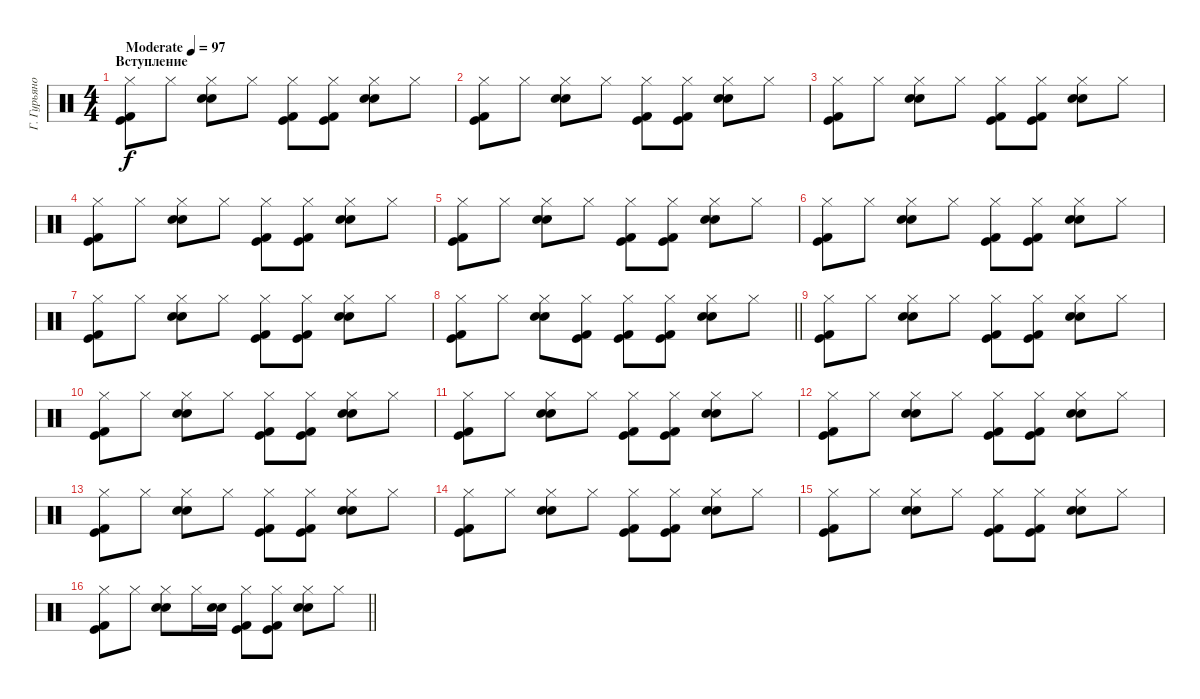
\track ("Г. Гурьянов" "Г. Гурьяно") {instrument percussion}
\staff {score}
\articulation defaults
\ts (4 4)
\section ("" "Вступление")
\tempo (97 "Moderate")
\clef neutral
\ks c
("Kick (hit) 2" "Kick (hit)" "Hi-Hat (closed)").8{dy f} "Hi-Hat (closed)".8 ("Electric Snare (hit)" "Snare (hit) 2" "Hi-Hat (closed)").8 "Hi-Hat (closed)".8 ("Kick (hit) 2" "Kick (hit)" "Hi-Hat (closed)").8 ("Kick (hit) 2" "Kick (hit)" "Hi-Hat (closed)").8 ("Electric Snare (hit)" "Snare (hit) 2" "Hi-Hat (closed)").8 "Hi-Hat (closed)".8 |
("Kick (hit) 2" "Kick (hit)" "Hi-Hat (closed)").8 "Hi-Hat (closed)".8 ("Electric Snare (hit)" "Snare (hit) 2" "Hi-Hat (closed)").8 "Hi-Hat (closed)".8 ("Kick (hit) 2" "Kick (hit)" "Hi-Hat (closed)").8 ("Kick (hit) 2" "Kick (hit)" "Hi-Hat (closed)").8 ("Electric Snare (hit)" "Snare (hit) 2" "Hi-Hat (closed)").8 "Hi-Hat (closed)".8 |
("Kick (hit) 2" "Kick (hit)" "Hi-Hat (closed)").8 "Hi-Hat (closed)".8 ("Electric Snare (hit)" "Snare (hit) 2" "Hi-Hat (closed)").8 "Hi-Hat (closed)".8 ("Kick (hit) 2" "Kick (hit)" "Hi-Hat (closed)").8 ("Kick (hit) 2" "Kick (hit)" "Hi-Hat (closed)").8 ("Electric Snare (hit)" "Snare (hit) 2" "Hi-Hat (closed)").8 "Hi-Hat (closed)".8 |
("Kick (hit) 2" "Kick (hit)" "Hi-Hat (closed)").8 "Hi-Hat (closed)".8 ("Electric Snare (hit)" "Snare (hit) 2" "Hi-Hat (closed)").8 "Hi-Hat (closed)".8 ("Kick (hit) 2" "Kick (hit)" "Hi-Hat (closed)").8 ("Kick (hit) 2" "Kick (hit)" "Hi-Hat (closed)").8 ("Electric Snare (hit)" "Snare (hit) 2" "Hi-Hat (closed)").8 "Hi-Hat (closed)".8 |
("Kick (hit) 2" "Kick (hit)" "Hi-Hat (closed)").8 "Hi-Hat (closed)".8 ("Electric Snare (hit)" "Snare (hit) 2" "Hi-Hat (closed)").8 "Hi-Hat (closed)".8 ("Kick (hit) 2" "Kick (hit)" "Hi-Hat (closed)").8 ("Kick (hit) 2" "Kick (hit)" "Hi-Hat (closed)").8 ("Electric Snare (hit)" "Snare (hit) 2" "Hi-Hat (closed)").8 "Hi-Hat (closed)".8 |
("Kick (hit) 2" "Kick (hit)" "Hi-Hat (closed)").8 "Hi-Hat (closed)".8 ("Electric Snare (hit)" "Snare (hit) 2" "Hi-Hat (closed)").8 "Hi-Hat (closed)".8 ("Kick (hit) 2" "Kick (hit)" "Hi-Hat (closed)").8 ("Kick (hit) 2" "Kick (hit)" "Hi-Hat (closed)").8 ("Electric Snare (hit)" "Snare (hit) 2" "Hi-Hat (closed)").8 "Hi-Hat (closed)".8 |
("Kick (hit) 2" "Kick (hit)" "Hi-Hat (closed)").8 "Hi-Hat (closed)".8 ("Electric Snare (hit)" "Snare (hit) 2" "Hi-Hat (closed)").8 "Hi-Hat (closed)".8 ("Kick (hit) 2" "Kick (hit)" "Hi-Hat (closed)").8 ("Kick (hit) 2" "Kick (hit)" "Hi-Hat (closed)").8 ("Electric Snare (hit)" "Snare (hit) 2" "Hi-Hat (closed)").8 "Hi-Hat (closed)".8 |
\barLineRight lightlight
("Kick (hit) 2" "Kick (hit)" "Hi-Hat (closed)").8 "Hi-Hat (closed)".8 ("Electric Snare (hit)" "Snare (hit) 2" "Hi-Hat (closed)").8 ("Kick (hit) 2" "Kick (hit)" "Hi-Hat (closed)").8 ("Kick (hit) 2" "Kick (hit)" "Hi-Hat (closed)").8 ("Kick (hit) 2" "Kick (hit)" "Hi-Hat (closed)").8 ("Electric Snare (hit)" "Snare (hit) 2" "Hi-Hat (closed)").8 "Hi-Hat (closed)".8 |
("Kick (hit) 2" "Kick (hit)" "Hi-Hat (closed)").8 "Hi-Hat (closed)".8 ("Electric Snare (hit)" "Snare (hit) 2" "Hi-Hat (closed)").8 "Hi-Hat (closed)".8 ("Kick (hit) 2" "Kick (hit)" "Hi-Hat (closed)").8 ("Kick (hit) 2" "Kick (hit)" "Hi-Hat (closed)").8 ("Electric Snare (hit)" "Snare (hit) 2" "Hi-Hat (closed)").8 "Hi-Hat (closed)".8 |
("Kick (hit) 2" "Kick (hit)" "Hi-Hat (closed)").8 "Hi-Hat (closed)".8 ("Electric Snare (hit)" "Snare (hit) 2" "Hi-Hat (closed)").8 "Hi-Hat (closed)".8 ("Kick (hit) 2" "Kick (hit)" "Hi-Hat (closed)").8 ("Kick (hit) 2" "Kick (hit)" "Hi-Hat (closed)").8 ("Electric Snare (hit)" "Snare (hit) 2" "Hi-Hat (closed)").8 "Hi-Hat (closed)".8 |
("Kick (hit) 2" "Kick (hit)" "Hi-Hat (closed)").8 "Hi-Hat (closed)".8 ("Electric Snare (hit)" "Snare (hit) 2" "Hi-Hat (closed)").8 "Hi-Hat (closed)".8 ("Kick (hit) 2" "Kick (hit)" "Hi-Hat (closed)").8 ("Kick (hit) 2" "Kick (hit)" "Hi-Hat (closed)").8 ("Electric Snare (hit)" "Snare (hit) 2" "Hi-Hat (closed)").8 "Hi-Hat (closed)".8 |
("Kick (hit) 2" "Kick (hit)" "Hi-Hat (closed)").8 "Hi-Hat (closed)".8 ("Electric Snare (hit)" "Snare (hit) 2" "Hi-Hat (closed)").8 "Hi-Hat (closed)".8 ("Kick (hit) 2" "Kick (hit)" "Hi-Hat (closed)").8 ("Kick (hit) 2" "Kick (hit)" "Hi-Hat (closed)").8 ("Electric Snare (hit)" "Snare (hit) 2" "Hi-Hat (closed)").8 "Hi-Hat (closed)".8 |
("Kick (hit) 2" "Kick (hit)" "Hi-Hat (closed)").8 "Hi-Hat (closed)".8 ("Electric Snare (hit)" "Snare (hit) 2" "Hi-Hat (closed)").8 "Hi-Hat (closed)".8 ("Kick (hit) 2" "Kick (hit)" "Hi-Hat (closed)").8 ("Kick (hit) 2" "Kick (hit)" "Hi-Hat (closed)").8 ("Electric Snare (hit)" "Snare (hit) 2" "Hi-Hat (closed)").8 "Hi-Hat (closed)".8 |
("Kick (hit) 2" "Kick (hit)" "Hi-Hat (closed)").8 "Hi-Hat (closed)".8 ("Electric Snare (hit)" "Snare (hit) 2" "Hi-Hat (closed)").8 "Hi-Hat (closed)".8 ("Kick (hit) 2" "Kick (hit)" "Hi-Hat (closed)").8 ("Kick (hit) 2" "Kick (hit)" "Hi-Hat (closed)").8 ("Electric Snare (hit)" "Snare (hit) 2" "Hi-Hat (closed)").8 "Hi-Hat (closed)".8 |
("Kick (hit) 2" "Kick (hit)" "Hi-Hat (closed)").8 "Hi-Hat (closed)".8 ("Electric Snare (hit)" "Snare (hit) 2" "Hi-Hat (closed)").8 "Hi-Hat (closed)".8 ("Kick (hit) 2" "Kick (hit)" "Hi-Hat (closed)").8 ("Kick (hit) 2" "Kick (hit)" "Hi-Hat (closed)").8 ("Electric Snare (hit)" "Snare (hit) 2" "Hi-Hat (closed)").8 "Hi-Hat (closed)".8 |
\barLineRight lightlight
("Kick (hit) 2" "Kick (hit)" "Hi-Hat (closed)").8 "Hi-Hat (closed)".8 ("Electric Snare (hit)" "Snare (hit) 2" "Hi-Hat (closed)").8 "Hi-Hat (closed)".16 ("Electric Snare (hit)" "Snare (hit) 2").16 ("Kick (hit) 2" "Kick (hit)" "Hi-Hat (closed)").8 ("Kick (hit) 2" "Kick (hit)" "Hi-Hat (closed)").8 ("Electric Snare (hit)" "Snare (hit) 2" "Hi-Hat (closed)").8 "Hi-Hat (closed)".8
